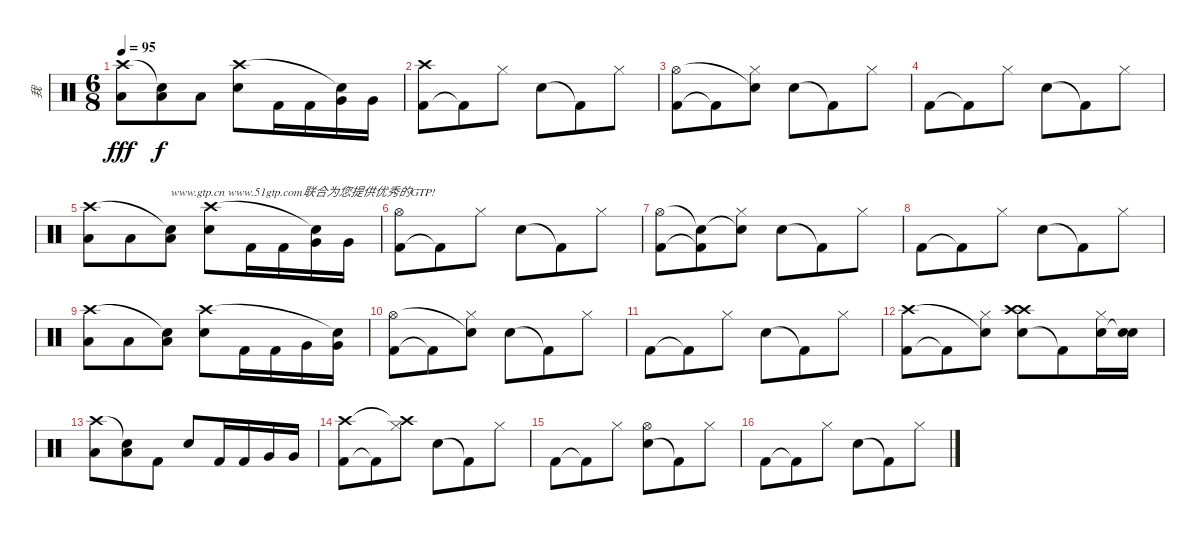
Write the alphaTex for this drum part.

\track ("我" "我") {instrument percussion}
\staff {score}
\articulation defaults
\ts (6 8)
\tempo 95
\clef neutral
\ks c
("Low Tom (hit)" "Crash high (hit)").8{dy fff} ("Low Tom (hit)" "Snare (hit)"{t}).8{dy f} "Low Tom (hit)".8 ("Snare (hit) 2" "Crash high (hit)").8 "Kick (hit) 2".16 "Kick (hit) 2".16 ("Very Low Tom (hit)" "Snare (hit)"{t}).16 "Very Low Tom (hit)".16 |
("Kick (hit) 2" "Crash high (hit)").8 "Kick (hit) 2"{t}.8 "Hi-Hat (closed)".8 "Electric Snare (hit)".8 "Kick (hit) 2"{t}.8 "Hi-Hat (closed)".8 |
("Kick (hit) 2" "Hi-Hat (open)").8 "Kick (hit) 2"{t}.8 ("Hi-Hat (closed)" "Snare (hit)"{t}).8 "Electric Snare (hit)".8 "Kick (hit) 2"{t}.8 "Hi-Hat (closed)".8 |
"Kick (hit) 2".8 "Kick (hit) 2"{t}.8 "Hi-Hat (closed)".8 "Electric Snare (hit)".8 "Kick (hit) 2"{t}.8 "Hi-Hat (closed)".8 |
("Low Tom (hit)" "Crash high (hit)").8 "Low Tom (hit)".8 ("Low Tom (hit)" "Snare (hit)"{t}).8{txt "www.gtp.cn www.51gtp.com联合为您提供优秀的GTP!"} ("Snare (hit) 2" "Crash high (hit)").8 "Kick (hit) 2".16 "Kick (hit) 2".16 ("Very Low Tom (hit)" "Snare (hit)"{t}).16 "Very Low Tom (hit)".16 |
("Kick (hit) 2" "Hi-Hat (open)").8 "Kick (hit) 2"{t}.8 "Hi-Hat (closed)".8 "Electric Snare (hit)".8 "Kick (hit) 2"{t}.8 "Hi-Hat (closed)".8 |
("Kick (hit) 2" "Hi-Hat (open)").8 ("Kick (hit) 2"{t} "Snare (hit)"{t}).8 ("Hi-Hat (closed)" "Snare (hit)"{t}).8 "Electric Snare (hit)".8 "Kick (hit) 2"{t}.8 "Hi-Hat (closed)".8 |
"Kick (hit) 2".8 "Kick (hit) 2"{t}.8 "Hi-Hat (closed)".8 "Electric Snare (hit)".8 "Kick (hit) 2"{t}.8 "Hi-Hat (closed)".8 |
("Low Tom (hit)" "Crash high (hit)").8 "Low Tom (hit)".8 ("Low Tom (hit)" "Snare (hit)"{t}).8 ("Snare (hit) 2" "Crash high (hit)").8 "Kick (hit) 2".16 "Kick (hit) 2".16 "Very Low Tom (hit)".16 ("Very Low Tom (hit)" "Snare (hit)"{t}).16 |
("Kick (hit) 2" "Hi-Hat (open)").8 "Kick (hit) 2"{t}.8 ("Hi-Hat (closed)" "Snare (hit)"{t}).8 "Electric Snare (hit)".8 "Kick (hit) 2"{t}.8 "Hi-Hat (closed)".8 |
"Kick (hit) 2".8 "Kick (hit) 2"{t}.8 "Hi-Hat (closed)".8 "Electric Snare (hit)".8 "Kick (hit) 2"{t}.8 "Hi-Hat (closed)".8 |
("Kick (hit) 2" "Crash high (hit)").8 "Kick (hit) 2"{t}.8 ("Hi-Hat (closed)" "Snare (hit)"{t}).8 ("Electric Snare (hit)" "Crash high (hit)" "Crash high (hit)").8 "Kick (hit) 2"{t}.8 ("Hi-Hat (closed)" "Snare (hit) 2").16 ("Snare (hit) 2" "Snare (hit)"{t}).16 |
("Low Tom (hit)" "Crash high (hit)").8 ("Low Tom (hit)" "Snare (hit)"{t}).8 "Kick (hit) 2".8 "Snare (hit) 2".8 "Kick (hit) 2".16 "Kick (hit) 2".16 "Very Low Tom (hit)".16 "Very Low Tom (hit)".16 |
("Kick (hit) 2" "Crash high (hit)").8 "Kick (hit) 2"{t}.8 ("Hi-Hat (closed)" "Crash high (hit)"{t}).8 "Electric Snare (hit)".8 "Kick (hit) 2"{t}.8 "Hi-Hat (closed)".8 |
"Kick (hit) 2".8 "Kick (hit) 2"{t}.8 "Hi-Hat (closed)".8 ("Electric Snare (hit)" "Hi-Hat (open)").8 "Kick (hit) 2"{t}.8 "Hi-Hat (closed)".8 |
"Kick (hit) 2".8 "Kick (hit) 2"{t}.8 "Hi-Hat (closed)".8 "Electric Snare (hit)".8 "Kick (hit) 2"{t}.8 "Hi-Hat (closed)".8
